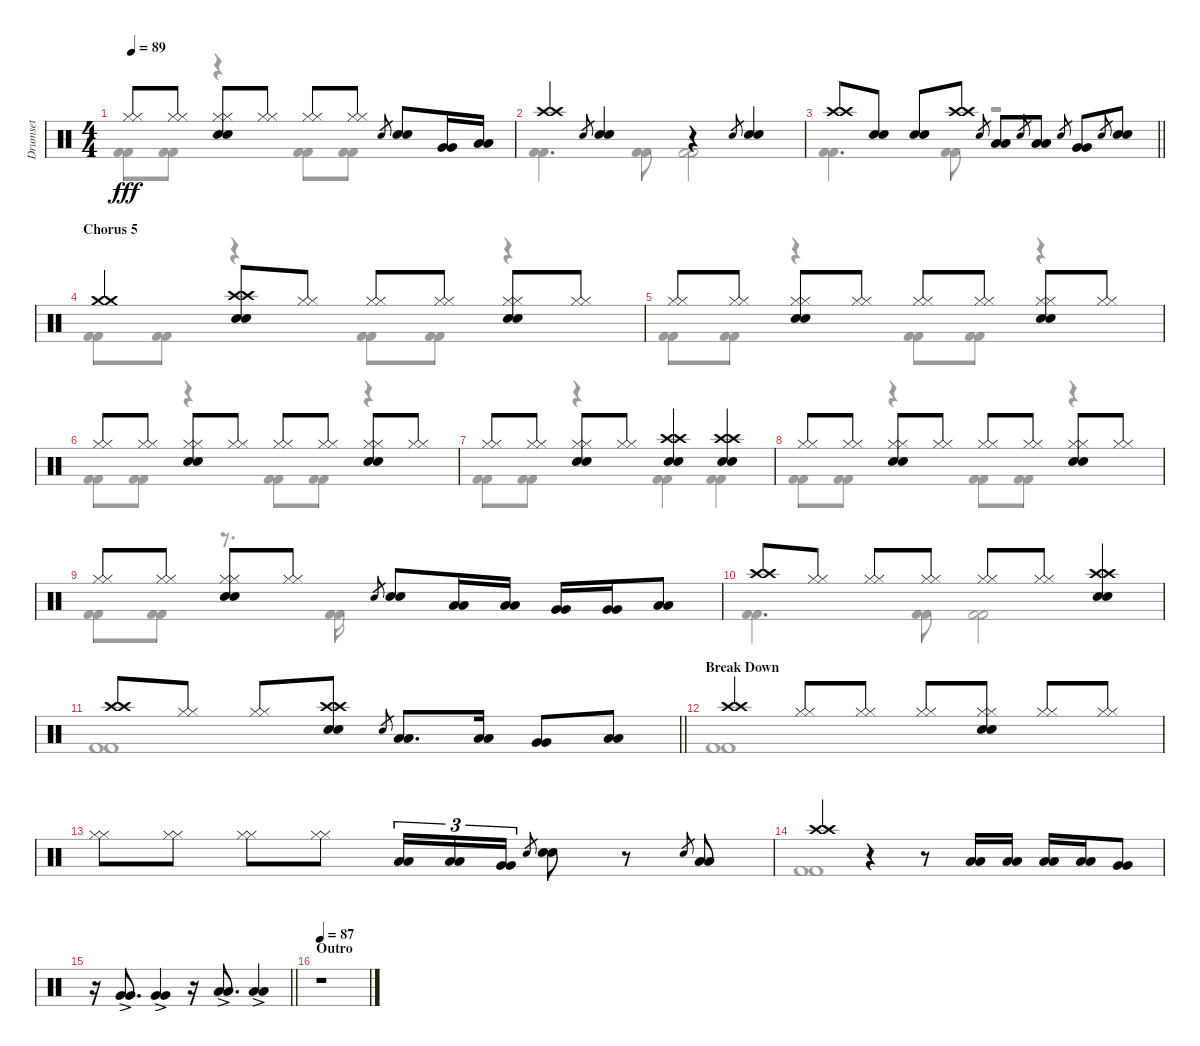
\track ("Drumset" "Drumset") {instrument percussion}
\staff {score}
\articulation defaults
\voice
\ts (4 4)
\tempo 89
\clef neutral
\ks c
("Hi-Hat (closed)" "Hi-Hat (closed)").8{dy fff} ("Hi-Hat (closed)" "Hi-Hat (closed)").8 ("Electric Snare (hit)" "Electric Snare (hit)" "Hi-Hat (closed)" "Hi-Hat (closed)").8 ("Hi-Hat (closed)" "Hi-Hat (closed)").8 ("Hi-Hat (closed)" "Hi-Hat (closed)").8 ("Hi-Hat (closed)" "Hi-Hat (closed)").8 "Snare (hit)".8{gr} ("Electric Snare (hit)" "Electric Snare (hit)").8 ("Very Low Tom (hit)" "Very Low Tom (hit)").16 ("Low Tom (hit)" "Low Tom (hit)").16 |
("Crash high (hit)" "Crash high (hit)").4 "Snare (hit)".8{gr} ("Electric Snare (hit)" "Electric Snare (hit)").4 r.4 "Snare (hit)".8{gr} ("Electric Snare (hit)" "Electric Snare (hit)").4 |
\barLineRight lightlight
("Crash high (hit)" "Crash high (hit)").8 ("Electric Snare (hit)" "Electric Snare (hit)").8 ("Electric Snare (hit)" "Electric Snare (hit)").8 ("Crash high (hit)" "Crash high (hit)").8 "Snare (hit)".8{gr} ("Low Tom (hit)" "Low Tom (hit)").8 "Snare (hit)".8{gr} ("Low Tom (hit)" "Low Tom (hit)").8 "Snare (hit)".8{gr} ("Very Low Tom (hit)" "Very Low Tom (hit)").8 "Snare (hit)".8{gr} ("Electric Snare (hit)" "Electric Snare (hit)").8 |
\section ("" "Chorus 5")
("Crash medium (hit)" "Crash medium (hit)").4 ("Electric Snare (hit)" "Electric Snare (hit)" "Crash high (hit)" "Crash high (hit)").8 ("Hi-Hat (closed)" "Hi-Hat (closed)").8 ("Hi-Hat (closed)" "Hi-Hat (closed)").8 ("Hi-Hat (closed)" "Hi-Hat (closed)").8 ("Electric Snare (hit)" "Electric Snare (hit)" "Hi-Hat (closed)" "Hi-Hat (closed)").8 ("Hi-Hat (closed)" "Hi-Hat (closed)").8 |
("Hi-Hat (closed)" "Hi-Hat (closed)").8 ("Hi-Hat (closed)" "Hi-Hat (closed)").8 ("Electric Snare (hit)" "Electric Snare (hit)" "Hi-Hat (closed)" "Hi-Hat (closed)").8 ("Hi-Hat (closed)" "Hi-Hat (closed)").8 ("Hi-Hat (closed)" "Hi-Hat (closed)").8 ("Hi-Hat (closed)" "Hi-Hat (closed)").8 ("Electric Snare (hit)" "Electric Snare (hit)" "Hi-Hat (closed)" "Hi-Hat (closed)").8 ("Hi-Hat (closed)" "Hi-Hat (closed)").8 |
("Hi-Hat (closed)" "Hi-Hat (closed)").8 ("Hi-Hat (closed)" "Hi-Hat (closed)").8 ("Electric Snare (hit)" "Electric Snare (hit)" "Hi-Hat (closed)" "Hi-Hat (closed)").8 ("Hi-Hat (closed)" "Hi-Hat (closed)").8 ("Hi-Hat (closed)" "Hi-Hat (closed)").8 ("Hi-Hat (closed)" "Hi-Hat (closed)").8 ("Electric Snare (hit)" "Electric Snare (hit)" "Hi-Hat (closed)" "Hi-Hat (closed)").8 ("Hi-Hat (closed)" "Hi-Hat (closed)").8 |
("Hi-Hat (closed)" "Hi-Hat (closed)").8 ("Hi-Hat (closed)" "Hi-Hat (closed)").8 ("Electric Snare (hit)" "Electric Snare (hit)" "Hi-Hat (closed)" "Hi-Hat (closed)").8 ("Hi-Hat (closed)" "Hi-Hat (closed)").8 ("Electric Snare (hit)" "Electric Snare (hit)" "Crash high (hit)" "Crash high (hit)").4 ("Electric Snare (hit)" "Electric Snare (hit)" "Crash high (hit)" "Crash high (hit)").4 |
("Hi-Hat (closed)" "Hi-Hat (closed)").8 ("Hi-Hat (closed)" "Hi-Hat (closed)").8 ("Electric Snare (hit)" "Electric Snare (hit)" "Hi-Hat (closed)" "Hi-Hat (closed)").8 ("Hi-Hat (closed)" "Hi-Hat (closed)").8 ("Hi-Hat (closed)" "Hi-Hat (closed)").8 ("Hi-Hat (closed)" "Hi-Hat (closed)").8 ("Electric Snare (hit)" "Electric Snare (hit)" "Hi-Hat (closed)" "Hi-Hat (closed)").8 ("Hi-Hat (closed)" "Hi-Hat (closed)").8 |
("Hi-Hat (closed)" "Hi-Hat (closed)").8 ("Hi-Hat (closed)" "Hi-Hat (closed)").8 ("Electric Snare (hit)" "Electric Snare (hit)" "Hi-Hat (closed)" "Hi-Hat (closed)").8 ("Hi-Hat (closed)" "Hi-Hat (closed)").8 "Snare (hit)".8{gr} ("Electric Snare (hit)" "Electric Snare (hit)").8 ("Low Tom (hit)" "Low Tom (hit)").16 ("Low Tom (hit)" "Low Tom (hit)").16 ("Very Low Tom (hit)" "Very Low Tom (hit)").16 ("Very Low Tom (hit)" "Very Low Tom (hit)").16 ("Low Floor Tom (hit)" "Low Floor Tom (hit)").8 |
("Crash high (hit)" "Crash high (hit)").8 ("Hi-Hat (closed)" "Hi-Hat (closed)").8 ("Hi-Hat (closed)" "Hi-Hat (closed)").8 ("Hi-Hat (closed)" "Hi-Hat (closed)").8 ("Hi-Hat (closed)" "Hi-Hat (closed)").8 ("Hi-Hat (closed)" "Hi-Hat (closed)").8 ("Electric Snare (hit)" "Electric Snare (hit)" "Crash high (hit)" "Crash high (hit)").4 |
\barLineRight lightlight
("Crash high (hit)" "Crash high (hit)").8 ("Hi-Hat (closed)" "Hi-Hat (closed)").8 ("Hi-Hat (closed)" "Hi-Hat (closed)").8 ("Electric Snare (hit)" "Electric Snare (hit)" "Crash high (hit)" "Crash high (hit)").8 "Snare (hit)".8{gr} ("Low Tom (hit)" "Low Tom (hit)").8{d} ("Low Tom (hit)" "Low Tom (hit)").16 ("Very Low Tom (hit)" "Very Low Tom (hit)").8 ("Low Floor Tom (hit)" "Low Floor Tom (hit)").8 |
\section ("" "Break Down")
("Crash high (hit)" "Crash high (hit)").4 ("Hi-Hat (closed)" "Hi-Hat (closed)").8 ("Hi-Hat (closed)" "Hi-Hat (closed)").8 ("Hi-Hat (closed)" "Hi-Hat (closed)").8 ("Electric Snare (hit)" "Electric Snare (hit)" "Hi-Hat (closed)" "Hi-Hat (closed)").8 ("Hi-Hat (closed)" "Hi-Hat (closed)").8 ("Hi-Hat (closed)" "Hi-Hat (closed)").8 |
("Hi-Hat (closed)" "Hi-Hat (closed)").8 ("Hi-Hat (closed)" "Hi-Hat (closed)").8 ("Hi-Hat (closed)" "Hi-Hat (closed)").8 ("Hi-Hat (closed)" "Hi-Hat (closed)").8 ("Low Tom (hit)" "Low Tom (hit)").16{tu (3 2)} ("Low Tom (hit)" "Low Tom (hit)").16{tu (3 2)} ("Very Low Tom (hit)" "Very Low Tom (hit)").16{tu (3 2)} "Snare (hit)".8{gr} ("Electric Snare (hit)" "Electric Snare (hit)").8 r.8 "Snare (hit)".8{gr} ("Low Floor Tom (hit)" "Low Floor Tom (hit)").8 |
("Crash high (hit)" "Crash high (hit)").4 r.4 r.8 ("Low Tom (hit)" "Low Tom (hit)").16 ("Low Tom (hit)" "Low Tom (hit)").16 ("Low Tom (hit)" "Low Tom (hit)").16 ("Low Tom (hit)" "Low Tom (hit)").16 ("Very Low Tom (hit)" "Very Low Tom (hit)").8 |
\barLineRight lightlight
r.16 ("Very Low Tom (hit)"{ac} "Very Low Tom (hit)"{ac}).8{d} ("Very Low Tom (hit)"{ac} "Very Low Tom (hit)"{ac}).4 r.16 ("Low Floor Tom (hit)"{ac} "Low Floor Tom (hit)"{ac}).8{d} ("Low Floor Tom (hit)"{ac} "Low Floor Tom (hit)"{ac}).4 |
\section ("" "Outro")
\tempo 87
r.1
\voice
\clef neutral
\ottava regular
\simile none
\ks c
("Kick (hit) 2" "Kick (hit) 2").8{dy fff} ("Kick (hit) 2" "Kick (hit) 2").8 r.4 ("Kick (hit) 2" "Kick (hit) 2").8 ("Kick (hit) 2" "Kick (hit) 2").8 |
("Kick (hit) 2" "Kick (hit) 2").4{d} ("Kick (hit) 2" "Kick (hit) 2").8 ("Kick (hit) 2" "Kick (hit) 2").2 |
\barLineRight lightlight
("Kick (hit) 2" "Kick (hit) 2").4{d} ("Kick (hit) 2" "Kick (hit) 2").8 r.2 |
("Kick (hit) 2" "Kick (hit) 2").8 ("Kick (hit) 2" "Kick (hit) 2").8 r.4 ("Kick (hit) 2" "Kick (hit) 2").8 ("Kick (hit) 2" "Kick (hit) 2").8 r.4 |
("Kick (hit) 2" "Kick (hit) 2").8 ("Kick (hit) 2" "Kick (hit) 2").8 r.4 ("Kick (hit) 2" "Kick (hit) 2").8 ("Kick (hit) 2" "Kick (hit) 2").8 r.4 |
("Kick (hit) 2" "Kick (hit) 2").8 ("Kick (hit) 2" "Kick (hit) 2").8 r.4 ("Kick (hit) 2" "Kick (hit) 2").8 ("Kick (hit) 2" "Kick (hit) 2").8 r.4 |
("Kick (hit) 2" "Kick (hit) 2").8 ("Kick (hit) 2" "Kick (hit) 2").8 r.4 ("Kick (hit) 2" "Kick (hit) 2").4 ("Kick (hit) 2" "Kick (hit) 2").4 |
("Kick (hit) 2" "Kick (hit) 2").8 ("Kick (hit) 2" "Kick (hit) 2").8 r.4 ("Kick (hit) 2" "Kick (hit) 2").8 ("Kick (hit) 2" "Kick (hit) 2").8 r.4 |
("Kick (hit) 2" "Kick (hit) 2").8 ("Kick (hit) 2" "Kick (hit) 2").8 r.8{d} ("Kick (hit) 2" "Kick (hit) 2").16 |
("Kick (hit) 2" "Kick (hit) 2").4{d} ("Kick (hit) 2" "Kick (hit) 2").8 ("Kick (hit) 2" "Kick (hit) 2").2 |
\barLineRight lightlight
("Kick (hit) 2" "Kick (hit) 2").1 |
("Kick (hit) 2" "Kick (hit) 2").1 |
|
("Kick (hit) 2" "Kick (hit) 2").1 |
\barLineRight lightlight
|
